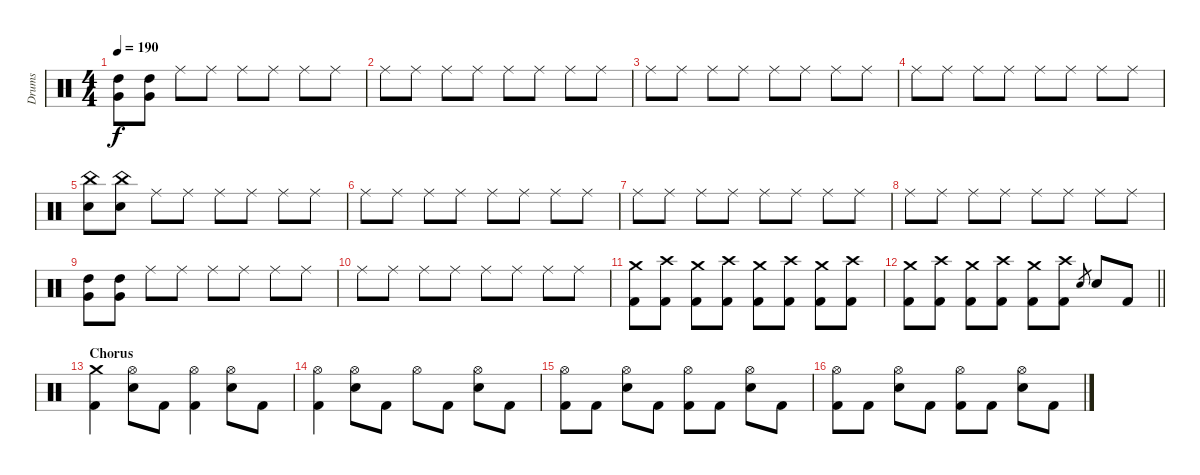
\track ("Drums" "Drums") {instrument percussion}
\staff {score}
\articulation defaults
\ts (4 4)
\tempo 190
\clef neutral
\ks c
("High Tom (hit)" "Very Low Tom (hit)").8{dy f} ("High Tom (hit)" "Very Low Tom (hit)").8 "Ride (middle)".8 "Ride (middle)".8 "Ride (middle)".8 "Ride (middle)".8 "Ride (middle)".8 "Ride (middle)".8 |
"Ride (middle)".8 "Ride (middle)".8 "Ride (middle)".8 "Ride (middle)".8 "Ride (middle)".8 "Ride (middle)".8 "Ride (middle)".8 "Ride (middle)".8 |
"Ride (middle)".8 "Ride (middle)".8 "Ride (middle)".8 "Ride (middle)".8 "Ride (middle)".8 "Ride (middle)".8 "Ride (middle)".8 "Ride (middle)".8 |
"Ride (middle)".8 "Ride (middle)".8 "Ride (middle)".8 "Ride (middle)".8 "Ride (middle)".8 "Ride (middle)".8 "Ride (middle)".8 "Ride (middle)".8 |
("China (hit)" "Snare (hit) 2").8 ("China (hit)" "Snare (hit) 2").8 "Ride (middle)".8 "Ride (middle)".8 "Ride (middle)".8 "Ride (middle)".8 "Ride (middle)".8 "Ride (middle)".8 |
"Ride (middle)".8 "Ride (middle)".8 "Ride (middle)".8 "Ride (middle)".8 "Ride (middle)".8 "Ride (middle)".8 "Ride (middle)".8 "Ride (middle)".8 |
"Ride (middle)".8 "Ride (middle)".8 "Ride (middle)".8 "Ride (middle)".8 "Ride (middle)".8 "Ride (middle)".8 "Ride (middle)".8 "Ride (middle)".8 |
"Ride (middle)".8 "Ride (middle)".8 "Ride (middle)".8 "Ride (middle)".8 "Ride (middle)".8 "Ride (middle)".8 "Ride (middle)".8 "Ride (middle)".8 |
("High Tom (hit)" "Very Low Tom (hit)").8 ("High Tom (hit)" "Very Low Tom (hit)").8 "Ride (middle)".8 "Ride (middle)".8 "Ride (middle)".8 "Ride (middle)".8 "Ride (middle)".8 "Ride (middle)".8 |
"Ride (middle)".8 "Ride (middle)".8 "Ride (middle)".8 "Ride (middle)".8 "Ride (middle)".8 "Ride (middle)".8 "Ride (middle)".8 "Ride (middle)".8 |
("Crash medium (hit)" "Kick (hit) 2").8 ("Crash high (hit)" "Kick (hit) 2").8 ("Crash medium (hit)" "Kick (hit) 2").8 ("Crash high (hit)" "Kick (hit) 2").8 ("Crash medium (hit)" "Kick (hit) 2").8 ("Crash high (hit)" "Kick (hit) 2").8 ("Crash medium (hit)" "Kick (hit) 2").8 ("Crash high (hit)" "Kick (hit) 2").8 |
\barLineRight lightlight
("Crash medium (hit)" "Kick (hit) 2").8 ("Crash high (hit)" "Kick (hit) 2").8 ("Crash medium (hit)" "Kick (hit) 2").8 ("Crash high (hit)" "Kick (hit) 2").8 ("Crash medium (hit)" "Kick (hit) 2").8 ("Crash high (hit)" "Kick (hit) 2").8 "Snare (hit) 2".8{gr} "Snare (hit) 2".8 "Kick (hit) 2".8 |
\section ("" "Chorus")
("Crash medium (hit)" "Kick (hit) 2").4 ("Hi-Hat (open)" "Snare (hit) 2").8 "Kick (hit) 2".8 ("Hi-Hat (open)" "Kick (hit) 2").4 ("Hi-Hat (open)" "Snare (hit) 2").8 "Kick (hit) 2".8 |
("Hi-Hat (open)" "Kick (hit) 2").4 ("Hi-Hat (open)" "Snare (hit) 2").8 "Kick (hit) 2".8 "Hi-Hat (open)".8 "Kick (hit) 2".8 ("Hi-Hat (open)" "Snare (hit) 2").8 "Kick (hit) 2".8 |
("Hi-Hat (open)" "Kick (hit) 2").8 "Kick (hit) 2".8 ("Hi-Hat (open)" "Snare (hit) 2").8 "Kick (hit) 2".8 ("Hi-Hat (open)" "Kick (hit) 2").8 "Kick (hit) 2".8 ("Hi-Hat (open)" "Snare (hit) 2").8 "Kick (hit) 2".8 |
("Hi-Hat (open)" "Kick (hit) 2").8 "Kick (hit) 2".8 ("Hi-Hat (open)" "Snare (hit) 2").8 "Kick (hit) 2".8 ("Hi-Hat (open)" "Kick (hit) 2").8 "Kick (hit) 2".8 ("Hi-Hat (open)" "Snare (hit) 2").8 "Kick (hit) 2".8
